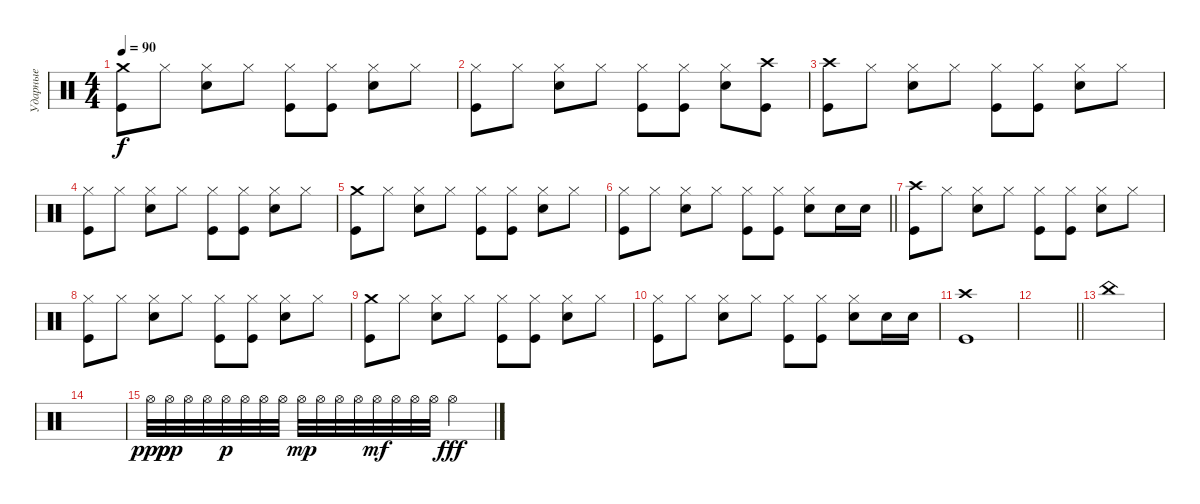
\track ("Ударные" "Ударные") {instrument percussion}
\staff {score}
\articulation defaults
\ts (4 4)
\tempo 90
\clef neutral
\ks c
("Kick (hit)" "Crash medium (hit)").8{dy f} "Hi-Hat (closed)".8 ("Hi-Hat (closed)" "Snare (hit) 2").8 "Hi-Hat (closed)".8 ("Hi-Hat (closed)" "Kick (hit)").8 ("Hi-Hat (closed)" "Kick (hit)").8 ("Hi-Hat (closed)" "Snare (hit) 2").8 "Hi-Hat (closed)".8 |
("Kick (hit)" "Hi-Hat (closed)").8 "Hi-Hat (closed)".8 ("Hi-Hat (closed)" "Snare (hit) 2").8 "Hi-Hat (closed)".8 ("Hi-Hat (closed)" "Kick (hit)").8 ("Hi-Hat (closed)" "Kick (hit)").8 ("Hi-Hat (closed)" "Snare (hit) 2").8 ("Crash high (hit)" "Kick (hit)").8 |
("Kick (hit)" "Crash high (hit)").8 "Hi-Hat (closed)".8 ("Hi-Hat (closed)" "Snare (hit) 2").8 "Hi-Hat (closed)".8 ("Hi-Hat (closed)" "Kick (hit)").8 ("Hi-Hat (closed)" "Kick (hit)").8 ("Hi-Hat (closed)" "Snare (hit) 2").8 "Hi-Hat (closed)".8 |
("Kick (hit)" "Hi-Hat (closed)").8 "Hi-Hat (closed)".8 ("Hi-Hat (closed)" "Snare (hit) 2").8 "Hi-Hat (closed)".8 ("Hi-Hat (closed)" "Kick (hit)").8 ("Hi-Hat (closed)" "Kick (hit)").8 ("Hi-Hat (closed)" "Snare (hit) 2").8 "Hi-Hat (closed)".8 |
("Kick (hit)" "Crash medium (hit)").8 "Hi-Hat (closed)".8 ("Hi-Hat (closed)" "Snare (hit) 2").8 "Hi-Hat (closed)".8 ("Hi-Hat (closed)" "Kick (hit)").8 ("Hi-Hat (closed)" "Kick (hit)").8 ("Hi-Hat (closed)" "Snare (hit) 2").8 "Hi-Hat (closed)".8 |
\barLineRight lightlight
("Kick (hit)" "Hi-Hat (closed)").8 "Hi-Hat (closed)".8 ("Hi-Hat (closed)" "Snare (hit) 2").8 "Hi-Hat (closed)".8 ("Hi-Hat (closed)" "Kick (hit)").8 ("Hi-Hat (closed)" "Kick (hit)").8 ("Hi-Hat (closed)" "Snare (hit) 2").8 "Snare (hit) 2".16 "Snare (hit) 2".16 |
("Kick (hit)" "Crash high (hit)").8 "Hi-Hat (closed)".8 ("Hi-Hat (closed)" "Snare (hit) 2").8 "Hi-Hat (closed)".8 ("Hi-Hat (closed)" "Kick (hit)").8 ("Hi-Hat (closed)" "Kick (hit)").8 ("Hi-Hat (closed)" "Snare (hit) 2").8 "Hi-Hat (closed)".8 |
("Kick (hit)" "Hi-Hat (closed)").8 "Hi-Hat (closed)".8 ("Hi-Hat (closed)" "Snare (hit) 2").8 "Hi-Hat (closed)".8 ("Hi-Hat (closed)" "Kick (hit)").8 ("Hi-Hat (closed)" "Kick (hit)").8 ("Hi-Hat (closed)" "Snare (hit) 2").8 "Hi-Hat (closed)".8 |
("Kick (hit)" "Crash medium (hit)").8 "Hi-Hat (closed)".8 ("Hi-Hat (closed)" "Snare (hit) 2").8 "Hi-Hat (closed)".8 ("Hi-Hat (closed)" "Kick (hit)").8 ("Hi-Hat (closed)" "Kick (hit)").8 ("Hi-Hat (closed)" "Snare (hit) 2").8 "Hi-Hat (closed)".8 |
("Kick (hit)" "Hi-Hat (closed)").8 "Hi-Hat (closed)".8 ("Hi-Hat (closed)" "Snare (hit) 2").8 "Hi-Hat (closed)".8 ("Hi-Hat (closed)" "Kick (hit)").8 ("Hi-Hat (closed)" "Kick (hit)").8 ("Hi-Hat (closed)" "Snare (hit) 2").8 "Snare (hit) 2".16 "Snare (hit) 2".16 |
("Crash high (hit)" "Kick (hit)").1 |
\barLineRight lightlight
|
"China (hit)".1 |
|
"Hi-Hat (open)".32{dy ppp} "Hi-Hat (open)".32{dy pp} "Hi-Hat (open)".32 "Hi-Hat (open)".32 "Hi-Hat (open)".32{dy p} "Hi-Hat (open)".32 "Hi-Hat (open)".32 "Hi-Hat (open)".32 "Hi-Hat (open)".32{dy mp} "Hi-Hat (open)".32 "Hi-Hat (open)".32 "Hi-Hat (open)".32 "Hi-Hat (open)".32{dy mf} "Hi-Hat (open)".32 "Hi-Hat (open)".32 "Hi-Hat (open)".32 "Hi-Hat (open)".2{dy fff}
